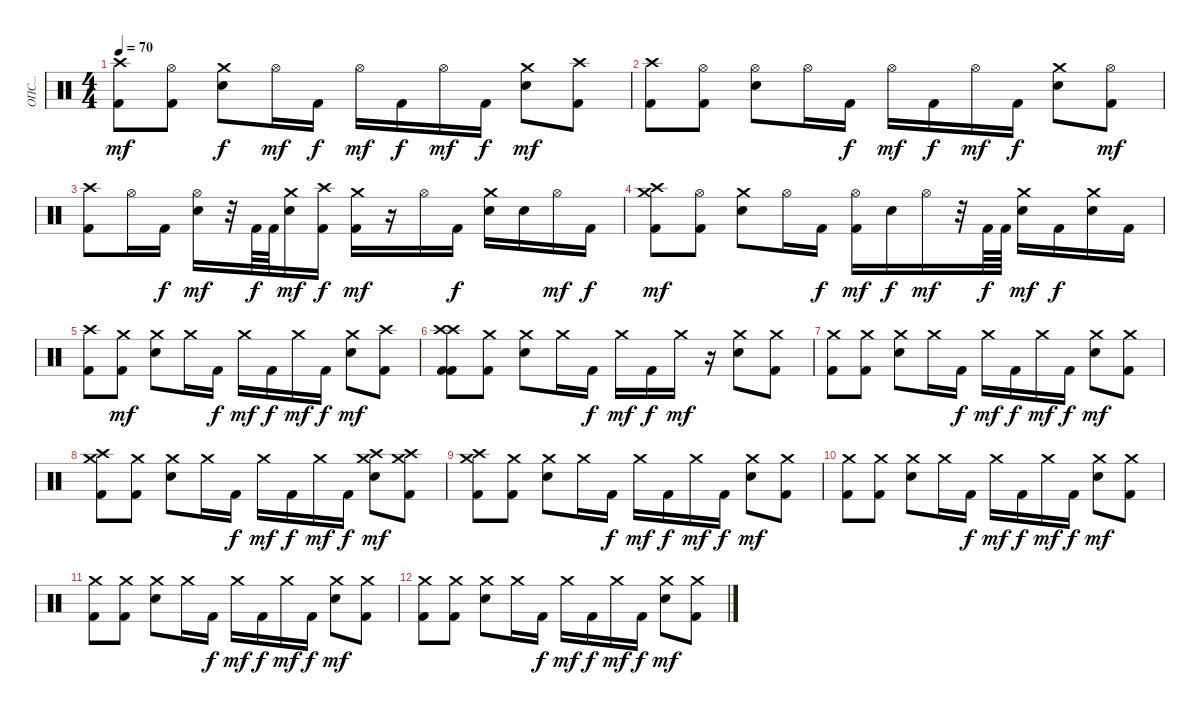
\track ("ОПС..." "ОПС...") {instrument percussion}
\staff {score}
\articulation defaults
\ts (4 4)
\tempo 70
\clef neutral
\ks c
("Kick (hit) 2" "Crash high (hit)").8{dy mf} ("Kick (hit) 2" "Hi-Hat (open)").8 ("Snare (hit) 2" "Crash medium (hit)").8{dy f} "Hi-Hat (open)".16{dy mf} "Kick (hit) 2".16{dy f} "Hi-Hat (open)".16{dy mf} "Kick (hit) 2".16{dy f} "Hi-Hat (open)".16{dy mf} "Kick (hit) 2".16{dy f} ("Snare (hit) 2" "Crash medium (hit)").8{dy mf} ("Kick (hit) 2" "Crash high (hit)").8 |
("Kick (hit) 2" "Crash high (hit)").8 ("Kick (hit) 2" "Hi-Hat (open)").8 ("Snare (hit) 2" "Hi-Hat (open)").8 "Hi-Hat (open)".16 "Kick (hit) 2".16{dy f} "Hi-Hat (open)".16{dy mf} "Kick (hit) 2".16{dy f} "Hi-Hat (open)".16{dy mf} "Kick (hit) 2".16{dy f} ("Snare (hit) 2" "Crash medium (hit)").8 ("Kick (hit) 2" "Hi-Hat (open)").8{dy mf} |
("Kick (hit) 2" "Crash high (hit)").8 "Hi-Hat (open)".16 "Kick (hit) 2".16{dy f} ("Snare (hit) 2" "Hi-Hat (open)").16{dy mf} r.32 "Kick (hit) 2".64{dy f} "Kick (hit) 2".64 ("Snare (hit) 2" "Crash medium (hit)").16{dy mf} ("Kick (hit) 2" "Crash high (hit)").16{dy f} ("Kick (hit) 2" "Crash medium (hit)").16{dy mf} r.16 "Hi-Hat (open)".16 "Kick (hit) 2".16{dy f} ("Snare (hit) 2" "Crash medium (hit)").16 "Snare (hit) 2".16 "Hi-Hat (open)".16{dy mf} "Kick (hit) 2".16{dy f} |
("Kick (hit) 2" "Crash medium (hit)" "Crash high (hit)").8{dy mf} ("Kick (hit) 2" "Hi-Hat (open)").8 ("Snare (hit) 2" "Crash medium (hit)").8 "Hi-Hat (open)".16 "Kick (hit) 2".16{dy f} ("Kick (hit) 2" "Hi-Hat (open)").16{dy mf} "Snare (hit) 2".16{dy f} "Hi-Hat (open)".16{dy mf} r.32 "Kick (hit) 2".64{dy f} "Kick (hit) 2".64 ("Snare (hit) 2" "Crash medium (hit)").16{dy mf} "Kick (hit) 2".16{dy f} ("Snare (hit) 2" "Crash medium (hit)").16 "Kick (hit) 2".16 |
("Kick (hit) 2" "Crash high (hit)").8 ("Kick (hit) 2" "Crash medium (hit)").8{dy mf} ("Snare (hit) 2" "Crash medium (hit)").8 "Crash medium (hit)".16 "Kick (hit) 2".16{dy f} "Crash medium (hit)".16{dy mf} "Kick (hit) 2".16{dy f} "Crash medium (hit)".16{dy mf} "Kick (hit) 2".16{dy f} ("Snare (hit) 2" "Crash medium (hit)").8{dy mf} ("Kick (hit) 2" "Crash high (hit)").8 |
("Kick (hit) 2" "Kick (hit) 2" "Crash high (hit)" "Crash high (hit)").8 ("Kick (hit) 2" "Crash medium (hit)").8 ("Snare (hit) 2" "Crash medium (hit)").8 "Crash medium (hit)".16 "Kick (hit) 2".16{dy f} "Crash medium (hit)".16{dy mf} "Kick (hit) 2".16{dy f} "Crash medium (hit)".16{dy mf} r.16 ("Snare (hit) 2" "Crash medium (hit)").8 ("Kick (hit) 2" "Crash medium (hit)").8 |
("Kick (hit) 2" "Crash medium (hit)").8 ("Kick (hit) 2" "Crash medium (hit)").8 ("Snare (hit) 2" "Crash medium (hit)").8 "Crash medium (hit)".16 "Kick (hit) 2".16{dy f} "Crash medium (hit)".16{dy mf} "Kick (hit) 2".16{dy f} "Crash medium (hit)".16{dy mf} "Kick (hit) 2".16{dy f} ("Snare (hit) 2" "Crash medium (hit)").8{dy mf} ("Kick (hit) 2" "Crash medium (hit)").8 |
("Kick (hit) 2" "Crash high (hit)" "Crash medium (hit)").8 ("Kick (hit) 2" "Crash medium (hit)").8 ("Snare (hit) 2" "Crash medium (hit)").8 "Crash medium (hit)".16 "Kick (hit) 2".16{dy f} "Crash medium (hit)".16{dy mf} "Kick (hit) 2".16{dy f} "Crash medium (hit)".16{dy mf} "Kick (hit) 2".16{dy f} ("Snare (hit) 2" "Crash high (hit)" "Crash medium (hit)").8{dy mf} ("Kick (hit) 2" "Crash high (hit)" "Crash medium (hit)").8 |
("Kick (hit) 2" "Crash high (hit)" "Crash medium (hit)").8 ("Kick (hit) 2" "Crash medium (hit)").8 ("Snare (hit) 2" "Crash medium (hit)").8 "Crash medium (hit)".16 "Kick (hit) 2".16{dy f} "Crash medium (hit)".16{dy mf} "Kick (hit) 2".16{dy f} "Crash medium (hit)".16{dy mf} "Kick (hit) 2".16{dy f} ("Snare (hit) 2" "Crash medium (hit)").8{dy mf} ("Kick (hit) 2" "Crash medium (hit)").8 |
("Kick (hit) 2" "Crash medium (hit)").8 ("Kick (hit) 2" "Crash medium (hit)").8 ("Snare (hit) 2" "Crash medium (hit)").8 "Crash medium (hit)".16 "Kick (hit) 2".16{dy f} "Crash medium (hit)".16{dy mf} "Kick (hit) 2".16{dy f} "Crash medium (hit)".16{dy mf} "Kick (hit) 2".16{dy f} ("Snare (hit) 2" "Crash medium (hit)").8{dy mf} ("Kick (hit) 2" "Crash medium (hit)").8 |
("Kick (hit) 2" "Crash medium (hit)").8 ("Kick (hit) 2" "Crash medium (hit)").8 ("Snare (hit) 2" "Crash medium (hit)").8 "Crash medium (hit)".16 "Kick (hit) 2".16{dy f} "Crash medium (hit)".16{dy mf} "Kick (hit) 2".16{dy f} "Crash medium (hit)".16{dy mf} "Kick (hit) 2".16{dy f} ("Snare (hit) 2" "Crash medium (hit)").8{dy mf} ("Kick (hit) 2" "Crash medium (hit)").8 |
("Kick (hit) 2" "Crash medium (hit)").8 ("Kick (hit) 2" "Crash medium (hit)").8 ("Snare (hit) 2" "Crash medium (hit)").8 "Crash medium (hit)".16 "Kick (hit) 2".16{dy f} "Crash medium (hit)".16{dy mf} "Kick (hit) 2".16{dy f} "Crash medium (hit)".16{dy mf} "Kick (hit) 2".16{dy f} ("Snare (hit) 2" "Crash medium (hit)").8{dy mf} ("Kick (hit) 2" "Crash medium (hit)").8
